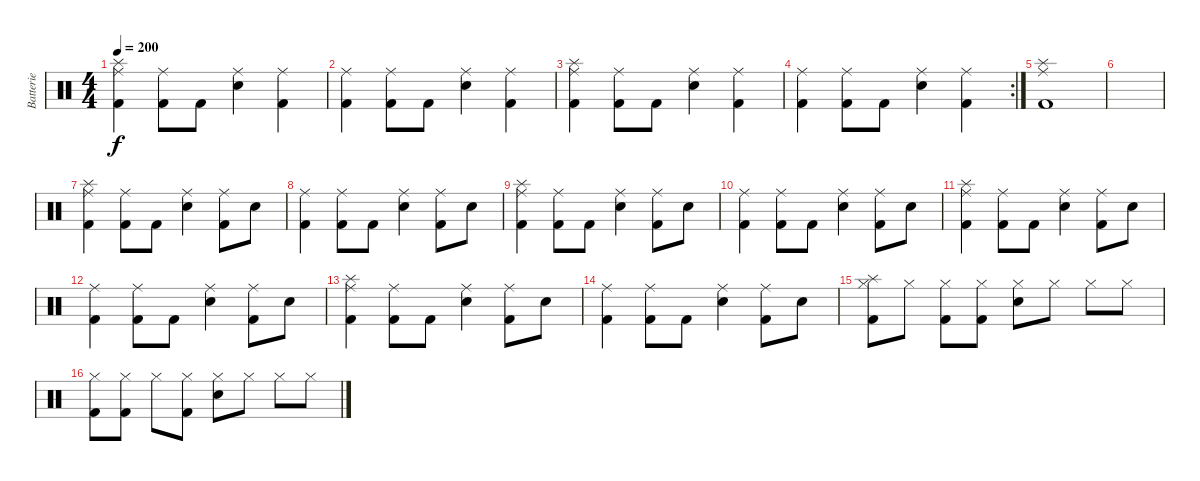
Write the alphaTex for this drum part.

\track ("Batterie" "Batterie") {instrument percussion}
\staff {score}
\articulation defaults
\ts (4 4)
\tempo 200
\clef neutral
\ks c
("Splash (hit)" "Ride (middle)" "Kick (hit) 2").4{dy f} ("Ride (middle)" "Kick (hit) 2").8 "Kick (hit) 2".8 ("Ride (middle)" "Snare (hit) 2").4 ("Ride (middle)" "Kick (hit) 2").4 |
("Ride (middle)" "Kick (hit) 2").4 ("Ride (middle)" "Kick (hit) 2").8 "Kick (hit) 2".8 ("Ride (middle)" "Snare (hit) 2").4 ("Ride (middle)" "Kick (hit) 2").4 |
("Splash (hit)" "Ride (middle)" "Kick (hit) 2").4 ("Ride (middle)" "Kick (hit) 2").8 "Kick (hit) 2".8 ("Ride (middle)" "Snare (hit) 2").4 ("Ride (middle)" "Kick (hit) 2").4 |
\rc 2
("Ride (middle)" "Kick (hit) 2").4 ("Ride (middle)" "Kick (hit) 2").8 "Kick (hit) 2".8 ("Ride (middle)" "Snare (hit) 2").4 ("Ride (middle)" "Kick (hit) 2").4 |
("Splash (hit)" "Ride (middle)" "Kick (hit) 2").1 |
|
("Splash (hit)" "Ride (middle)" "Kick (hit) 2").4 ("Ride (middle)" "Kick (hit) 2").8 "Kick (hit) 2".8 ("Ride (middle)" "Snare (hit) 2").4 ("Ride (middle)" "Kick (hit) 2").8 "Snare (hit) 2".8 |
("Ride (middle)" "Kick (hit) 2").4 ("Ride (middle)" "Kick (hit) 2").8 "Kick (hit) 2".8 ("Ride (middle)" "Snare (hit) 2").4 ("Ride (middle)" "Kick (hit) 2").8 "Snare (hit) 2".8 |
("Splash (hit)" "Ride (middle)" "Kick (hit) 2").4 ("Ride (middle)" "Kick (hit) 2").8 "Kick (hit) 2".8 ("Ride (middle)" "Snare (hit) 2").4 ("Ride (middle)" "Kick (hit) 2").8 "Snare (hit) 2".8 |
("Ride (middle)" "Kick (hit) 2").4 ("Ride (middle)" "Kick (hit) 2").8 "Kick (hit) 2".8 ("Ride (middle)" "Snare (hit) 2").4 ("Ride (middle)" "Kick (hit) 2").8 "Snare (hit) 2".8 |
("Splash (hit)" "Ride (middle)" "Kick (hit) 2").4 ("Ride (middle)" "Kick (hit) 2").8 "Kick (hit) 2".8 ("Ride (middle)" "Snare (hit) 2").4 ("Ride (middle)" "Kick (hit) 2").8 "Snare (hit) 2".8 |
("Ride (middle)" "Kick (hit) 2").4 ("Ride (middle)" "Kick (hit) 2").8 "Kick (hit) 2".8 ("Ride (middle)" "Snare (hit) 2").4 ("Ride (middle)" "Kick (hit) 2").8 "Snare (hit) 2".8 |
("Splash (hit)" "Ride (middle)" "Kick (hit) 2").4 ("Ride (middle)" "Kick (hit) 2").8 "Kick (hit) 2".8 ("Ride (middle)" "Snare (hit) 2").4 ("Ride (middle)" "Kick (hit) 2").8 "Snare (hit) 2".8 |
("Ride (middle)" "Kick (hit) 2").4 ("Ride (middle)" "Kick (hit) 2").8 "Kick (hit) 2".8 ("Ride (middle)" "Snare (hit) 2").4 ("Ride (middle)" "Kick (hit) 2").8 "Snare (hit) 2".8 |
("Splash (hit)" "Hi-Hat (closed)" "Kick (hit) 2").8 "Hi-Hat (closed)".8 ("Hi-Hat (closed)" "Kick (hit) 2").8 ("Hi-Hat (closed)" "Kick (hit) 2").8 ("Hi-Hat (closed)" "Snare (hit) 2").8 "Hi-Hat (closed)".8 "Hi-Hat (closed)".8 "Hi-Hat (closed)".8 |
("Hi-Hat (closed)" "Kick (hit) 2").8 ("Hi-Hat (closed)" "Kick (hit) 2").8 "Hi-Hat (closed)".8 ("Hi-Hat (closed)" "Kick (hit) 2").8 ("Hi-Hat (closed)" "Snare (hit) 2").8 "Hi-Hat (closed)".8 "Hi-Hat (closed)".8 "Hi-Hat (closed)".8
